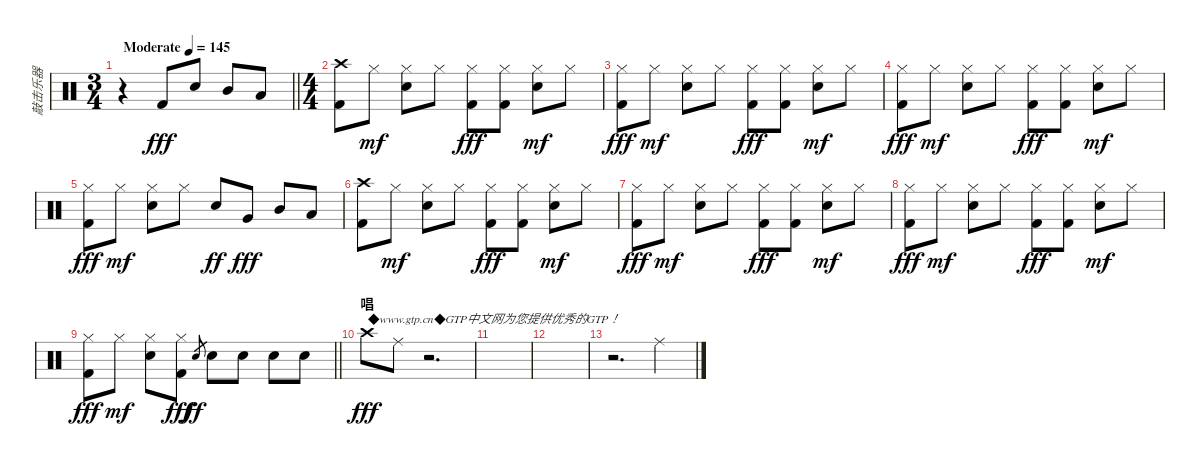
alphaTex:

\track ("敲击乐器" "敲击乐器") {instrument percussion}
\staff {score}
\articulation defaults
\ts (3 4)
\tempo (145 "Moderate")
\clef neutral
\barLineRight lightlight
\ks c
r.4{dy fff} "Kick (hit) 2".8 "Electric Snare (hit)".8 "Mid Tom (hit)".8 "Low Tom (hit)".8 |
\ts (4 4)
("Crash high (hit)" "Kick (hit) 2").8 "Hi-Hat (closed)".8{dy mf} ("Hi-Hat (closed)" "Electric Snare (hit)").8 "Hi-Hat (closed)".8 ("Hi-Hat (closed)" "Kick (hit) 2").8{dy fff} ("Hi-Hat (closed)" "Kick (hit) 2").8 ("Hi-Hat (closed)" "Electric Snare (hit)").8{dy mf} "Hi-Hat (closed)".8 |
("Hi-Hat (closed)" "Kick (hit) 2").8{dy fff} "Hi-Hat (closed)".8{dy mf} ("Hi-Hat (closed)" "Electric Snare (hit)").8 "Hi-Hat (closed)".8 ("Hi-Hat (closed)" "Kick (hit) 2").8{dy fff} ("Hi-Hat (closed)" "Kick (hit) 2").8 ("Hi-Hat (closed)" "Electric Snare (hit)").8{dy mf} "Hi-Hat (closed)".8 |
("Hi-Hat (closed)" "Kick (hit) 2").8{dy fff} "Hi-Hat (closed)".8{dy mf} ("Hi-Hat (closed)" "Electric Snare (hit)").8 "Hi-Hat (closed)".8 ("Hi-Hat (closed)" "Kick (hit) 2").8{dy fff} ("Hi-Hat (closed)" "Kick (hit) 2").8 ("Hi-Hat (closed)" "Electric Snare (hit)").8{dy mf} "Hi-Hat (closed)".8 |
("Hi-Hat (closed)" "Kick (hit) 2").8{dy fff} "Hi-Hat (closed)".8{dy mf} ("Hi-Hat (closed)" "Electric Snare (hit)").8 "Hi-Hat (closed)".8 "Electric Snare (hit)".8{dy ff} "Very Low Tom (hit)".8{dy fff} "Mid Tom (hit)".8 "Low Tom (hit)".8 |
("Crash high (hit)" "Kick (hit) 2").8 "Hi-Hat (closed)".8{dy mf} ("Hi-Hat (closed)" "Electric Snare (hit)").8 "Hi-Hat (closed)".8 ("Hi-Hat (closed)" "Kick (hit) 2").8{dy fff} ("Hi-Hat (closed)" "Kick (hit) 2").8 ("Hi-Hat (closed)" "Electric Snare (hit)").8{dy mf} "Hi-Hat (closed)".8 |
("Hi-Hat (closed)" "Kick (hit) 2").8{dy fff} "Hi-Hat (closed)".8{dy mf} ("Hi-Hat (closed)" "Electric Snare (hit)").8 "Hi-Hat (closed)".8 ("Hi-Hat (closed)" "Kick (hit) 2").8{dy fff} ("Hi-Hat (closed)" "Kick (hit) 2").8 ("Hi-Hat (closed)" "Electric Snare (hit)").8{dy mf} "Hi-Hat (closed)".8 |
("Hi-Hat (closed)" "Kick (hit) 2").8{dy fff} "Hi-Hat (closed)".8{dy mf} ("Hi-Hat (closed)" "Electric Snare (hit)").8 "Hi-Hat (closed)".8 ("Hi-Hat (closed)" "Kick (hit) 2").8{dy fff} ("Hi-Hat (closed)" "Kick (hit) 2").8 ("Hi-Hat (closed)" "Electric Snare (hit)").8{dy mf} "Hi-Hat (closed)".8 |
\barLineRight lightlight
("Hi-Hat (closed)" "Kick (hit) 2").8{dy fff} "Hi-Hat (closed)".8{dy mf} ("Hi-Hat (closed)" "Electric Snare (hit)").8 ("Hi-Hat (closed)" "Kick (hit) 2").8{dy fff} "Electric Snare (hit)".8{gr dy ff} "Electric Snare (hit)".8 "Electric Snare (hit)".8 "Electric Snare (hit)".8 "Electric Snare (hit)".8 |
\section ("" "唱")
"Crash high (hit)".8{txt "◆www.gtp.cn◆GTP中文网为您提供优秀的GTP！" dy fff} "Ride (middle)".8 r.2{d} |
|
|
r.2{d} "Ride (middle)".4
